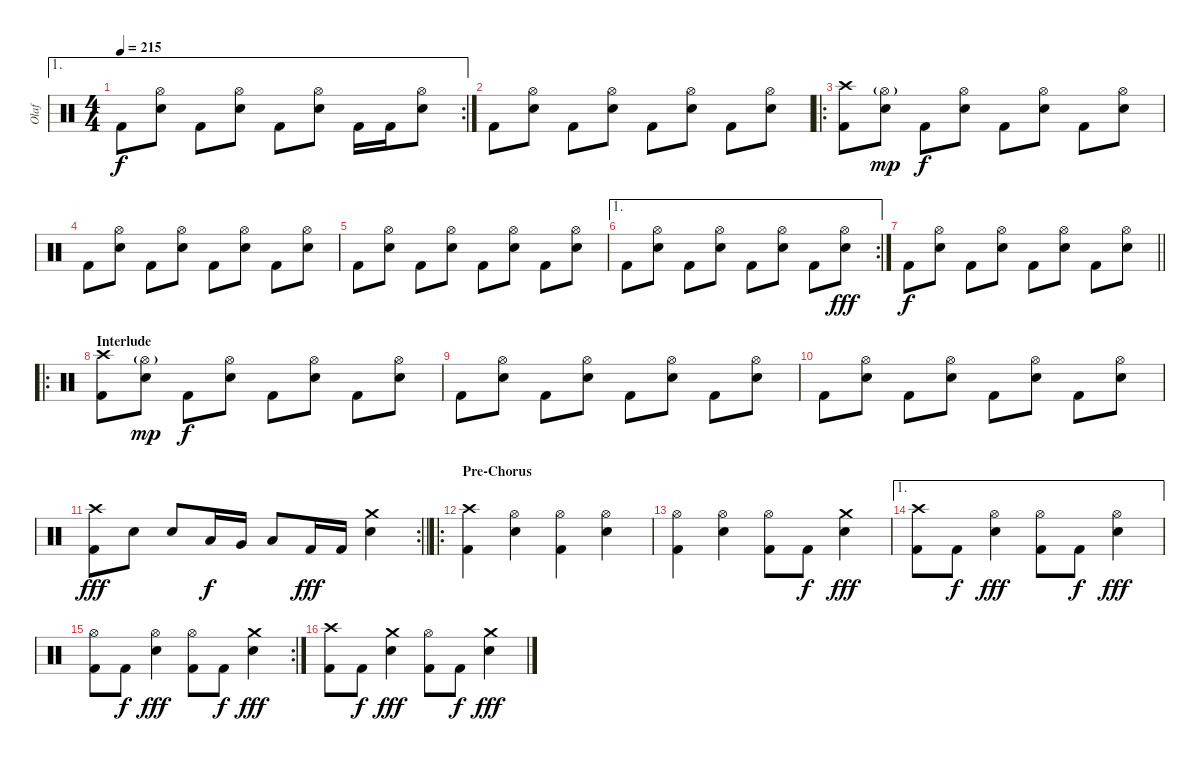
\track ("Olaf" "Olaf") {instrument percussion}
\staff {score}
\articulation defaults
\ae 1
\rc 2
\ts (4 4)
\tempo 215
\clef neutral
\ks c "Kick (hit) 2".8{dy f}
("Hi-Hat (open)" "Electric Snare (hit)").8 "Kick (hit) 2".8 ("Hi-Hat (open)" "Electric Snare (hit)").8 "Kick (hit) 2".8 ("Hi-Hat (open)" "Electric Snare (hit)").8 "Kick (hit) 2".16 "Kick (hit) 2".16 ("Hi-Hat (open)" "Electric Snare (hit)").8 |
"Kick (hit) 2".8 ("Hi-Hat (open)" "Electric Snare (hit)").8 "Kick (hit) 2".8 ("Hi-Hat (open)" "Electric Snare (hit)").8 "Kick (hit) 2".8 ("Hi-Hat (open)" "Electric Snare (hit)").8 "Kick (hit) 2".8 ("Hi-Hat (open)" "Electric Snare (hit)").8 |
\ro
("Crash high (hit)" "Kick (hit) 2").8 ("Hi-Hat (open)"{g} "Electric Snare (hit)").8{dy mp} "Kick (hit) 2".8{dy f} ("Hi-Hat (open)" "Electric Snare (hit)").8 "Kick (hit) 2".8 ("Hi-Hat (open)" "Electric Snare (hit)").8 "Kick (hit) 2".8 ("Hi-Hat (open)" "Electric Snare (hit)").8 |
"Kick (hit) 2".8 ("Hi-Hat (open)" "Electric Snare (hit)").8 "Kick (hit) 2".8 ("Hi-Hat (open)" "Electric Snare (hit)").8 "Kick (hit) 2".8 ("Hi-Hat (open)" "Electric Snare (hit)").8 "Kick (hit) 2".8 ("Hi-Hat (open)" "Electric Snare (hit)").8 |
"Kick (hit) 2".8 ("Hi-Hat (open)" "Electric Snare (hit)").8 "Kick (hit) 2".8 ("Hi-Hat (open)" "Electric Snare (hit)").8 "Kick (hit) 2".8 ("Hi-Hat (open)" "Electric Snare (hit)").8 "Kick (hit) 2".8 ("Hi-Hat (open)" "Electric Snare (hit)").8 |
\ae 1
\rc 2 "Kick (hit) 2".8
("Hi-Hat (open)" "Electric Snare (hit)").8 "Kick (hit) 2".8 ("Hi-Hat (open)" "Electric Snare (hit)").8 "Kick (hit) 2".8 ("Hi-Hat (open)" "Electric Snare (hit)").8 "Kick (hit) 2".8 ("Hi-Hat (open)" "Electric Snare (hit)").8{dy fff} |
\barLineRight lightlight "Kick (hit) 2".8{dy f}
("Hi-Hat (open)" "Electric Snare (hit)").8 "Kick (hit) 2".8 ("Hi-Hat (open)" "Electric Snare (hit)").8 "Kick (hit) 2".8 ("Hi-Hat (open)" "Electric Snare (hit)").8 "Kick (hit) 2".8 ("Hi-Hat (open)" "Electric Snare (hit)").8 |
\ro
\section ("" "Interlude")
("Crash high (hit)" "Kick (hit) 2").8 ("Hi-Hat (open)"{g} "Electric Snare (hit)").8{dy mp} "Kick (hit) 2".8{dy f} ("Hi-Hat (open)" "Electric Snare (hit)").8 "Kick (hit) 2".8 ("Hi-Hat (open)" "Electric Snare (hit)").8 "Kick (hit) 2".8 ("Hi-Hat (open)" "Electric Snare (hit)").8 |
"Kick (hit) 2".8 ("Hi-Hat (open)" "Electric Snare (hit)").8 "Kick (hit) 2".8 ("Hi-Hat (open)" "Electric Snare (hit)").8 "Kick (hit) 2".8 ("Hi-Hat (open)" "Electric Snare (hit)").8 "Kick (hit) 2".8 ("Hi-Hat (open)" "Electric Snare (hit)").8 |
"Kick (hit) 2".8 ("Hi-Hat (open)" "Electric Snare (hit)").8 "Kick (hit) 2".8 ("Hi-Hat (open)" "Electric Snare (hit)").8 "Kick (hit) 2".8 ("Hi-Hat (open)" "Electric Snare (hit)").8 "Kick (hit) 2".8 ("Hi-Hat (open)" "Electric Snare (hit)").8 |
\rc 2
\barLineRight lightlight
("Crash high (hit)" "Kick (hit) 2").8{dy fff} "Electric Snare (hit)".8 "Electric Snare (hit)".8 "Low Tom (hit)".16{dy f} "Very Low Tom (hit)".16 "Low Floor Tom (hit)".8 "Kick (hit) 2".16{dy fff} "Kick (hit) 2".16 ("Crash medium (hit)" "Electric Snare (hit)").4 |
\ro
\section ("" "Pre-Chorus")
("Crash high (hit)" "Kick (hit) 2").4 ("Hi-Hat (open)" "Electric Snare (hit)").4 ("Hi-Hat (open)" "Kick (hit) 2").4 ("Hi-Hat (open)" "Electric Snare (hit)").4 |
("Hi-Hat (open)" "Kick (hit) 2").4 ("Hi-Hat (open)" "Electric Snare (hit)").4 ("Hi-Hat (open)" "Kick (hit) 2").8 "Kick (hit) 2".8{dy f} ("Crash medium (hit)" "Electric Snare (hit)").4{dy fff} |
\ae 1
("Crash high (hit)" "Kick (hit) 2").8 "Kick (hit) 2".8{dy f} ("Hi-Hat (open)" "Electric Snare (hit)").4{dy fff} ("Hi-Hat (open)" "Kick (hit) 2").8 "Kick (hit) 2".8{dy f} ("Hi-Hat (open)" "Electric Snare (hit)").4{dy fff} |
\rc 2
("Hi-Hat (open)" "Kick (hit) 2").8 "Kick (hit) 2".8{dy f} ("Hi-Hat (open)" "Electric Snare (hit)").4{dy fff} ("Hi-Hat (open)" "Kick (hit) 2").8 "Kick (hit) 2".8{dy f} ("Crash medium (hit)" "Electric Snare (hit)").4{dy fff} |
("Crash high (hit)" "Kick (hit) 2").8 "Kick (hit) 2".8{dy f} ("Crash medium (hit)" "Electric Snare (hit)").4{dy fff} ("Hi-Hat (open)" "Kick (hit) 2").8 "Kick (hit) 2".8{dy f} ("Crash medium (hit)" "Electric Snare (hit)").4{dy fff}
